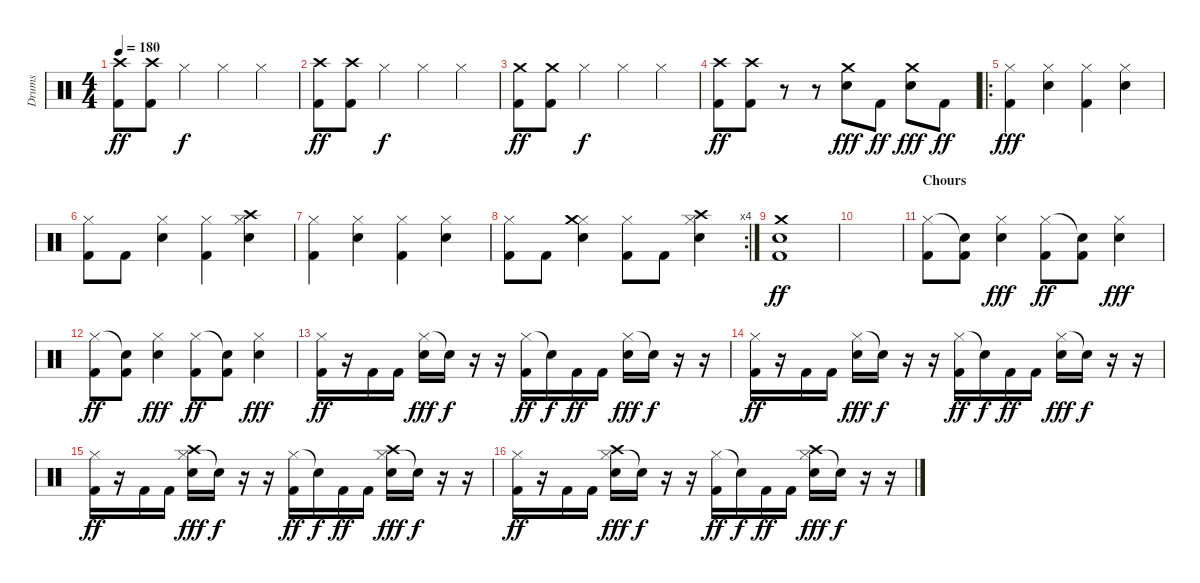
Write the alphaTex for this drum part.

\track ("Drums" "Drums") {instrument percussion}
\staff {score}
\articulation defaults
\ts (4 4)
\tempo 180
\clef neutral
\ks c
("Crash high (hit)" "Kick (hit) 2").8{dy ff} ("Crash high (hit)" "Kick (hit) 2").8 "Hi-Hat (closed)".4{dy f} "Hi-Hat (closed)".4 "Hi-Hat (closed)".4 |
("Crash high (hit)" "Kick (hit) 2").8{dy ff} ("Crash high (hit)" "Kick (hit) 2").8 "Hi-Hat (closed)".4{dy f} "Hi-Hat (closed)".4 "Hi-Hat (closed)".4 |
("Crash medium (hit)" "Kick (hit) 2").8{dy ff} ("Crash medium (hit)" "Kick (hit) 2").8 "Hi-Hat (closed)".4{dy f} "Hi-Hat (closed)".4 "Hi-Hat (closed)".4 |
("Crash high (hit)" "Kick (hit) 2").8{dy ff} ("Crash high (hit)" "Kick (hit) 2").8 r.8 r.8 ("Crash medium (hit)" "Snare (hit) 2").8{dy fff} "Kick (hit) 2".8{dy ff} ("Crash medium (hit)" "Snare (hit) 2").8{dy fff} "Kick (hit) 2".8{dy ff} |
\ro
("Hi-Hat (closed)" "Kick (hit) 2").4{dy fff} ("Hi-Hat (closed)" "Snare (hit) 2").4 ("Hi-Hat (closed)" "Kick (hit) 2").4 ("Hi-Hat (closed)" "Snare (hit) 2").4 |
("Hi-Hat (closed)" "Kick (hit) 2").8 "Kick (hit) 2".8 ("Hi-Hat (closed)" "Snare (hit) 2").4 ("Hi-Hat (closed)" "Kick (hit) 2").4 ("Hi-Hat (closed)" "Crash high (hit)" "Snare (hit) 2").4 |
("Hi-Hat (closed)" "Kick (hit) 2").4 ("Hi-Hat (closed)" "Snare (hit) 2").4 ("Hi-Hat (closed)" "Kick (hit) 2").4 ("Hi-Hat (closed)" "Snare (hit) 2").4 |
\rc 4
("Hi-Hat (closed)" "Kick (hit) 2").8 "Kick (hit) 2".8 ("Hi-Hat (closed)" "Crash medium (hit)" "Snare (hit) 2").4 ("Hi-Hat (closed)" "Kick (hit) 2").8 "Kick (hit) 2".8 ("Hi-Hat (closed)" "Crash high (hit)" "Snare (hit) 2").4 |
("Crash medium (hit)" "Snare (hit) 2" "Kick (hit) 2").1{dy ff} |
|
\section ("" "Chours")
("Hi-Hat (closed)" "Kick (hit) 2").8 ("Snare (hit)"{t} "Kick (hit) 2").8 ("Hi-Hat (closed)" "Snare (hit) 2").4{dy fff} ("Hi-Hat (closed)" "Kick (hit) 2").8{dy ff} ("Snare (hit)"{t} "Kick (hit) 2").8 ("Hi-Hat (closed)" "Snare (hit) 2").4{dy fff} |
("Hi-Hat (closed)" "Kick (hit) 2").8{dy ff} ("Snare (hit)"{t} "Kick (hit) 2").8 ("Hi-Hat (closed)" "Snare (hit) 2").4{dy fff} ("Hi-Hat (closed)" "Kick (hit) 2").8{dy ff} ("Snare (hit)"{t} "Kick (hit) 2").8 ("Hi-Hat (closed)" "Snare (hit) 2").4{dy fff} |
("Hi-Hat (closed)" "Kick (hit) 2").16{dy ff} r.16 "Kick (hit) 2".16 "Kick (hit) 2".16 ("Hi-Hat (closed)" "Snare (hit) 2").16{dy fff} "Snare (hit)"{t}.16{dy f} r.16 r.16 ("Hi-Hat (closed)" "Kick (hit) 2").16{dy ff} "Snare (hit)"{t}.16{dy f} "Kick (hit) 2".16{dy ff} "Kick (hit) 2".16 ("Hi-Hat (closed)" "Snare (hit) 2").16{dy fff} "Snare (hit)"{t}.16{dy f} r.16 r.16 |
("Hi-Hat (closed)" "Kick (hit) 2").16{dy ff} r.16 "Kick (hit) 2".16 "Kick (hit) 2".16 ("Hi-Hat (closed)" "Snare (hit) 2").16{dy fff} "Snare (hit)"{t}.16{dy f} r.16 r.16 ("Hi-Hat (closed)" "Kick (hit) 2").16{dy ff} "Snare (hit)"{t}.16{dy f} "Kick (hit) 2".16{dy ff} "Kick (hit) 2".16 ("Hi-Hat (closed)" "Snare (hit) 2").16{dy fff} "Snare (hit)"{t}.16{dy f} r.16 r.16 |
("Hi-Hat (closed)" "Kick (hit) 2").16{dy ff} r.16 "Kick (hit) 2".16 "Kick (hit) 2".16 ("Hi-Hat (closed)" "Crash high (hit)" "Snare (hit) 2").16{dy fff} "Snare (hit)"{t}.16{dy f} r.16 r.16 ("Hi-Hat (closed)" "Kick (hit) 2").16{dy ff} "Snare (hit)"{t}.16{dy f} "Kick (hit) 2".16{dy ff} "Kick (hit) 2".16 ("Hi-Hat (closed)" "Crash high (hit)" "Snare (hit) 2").16{dy fff} "Snare (hit)"{t}.16{dy f} r.16 r.16 |
("Hi-Hat (closed)" "Kick (hit) 2").16{dy ff} r.16 "Kick (hit) 2".16 "Kick (hit) 2".16 ("Hi-Hat (closed)" "Crash high (hit)" "Snare (hit) 2").16{dy fff} "Snare (hit)"{t}.16{dy f} r.16 r.16 ("Hi-Hat (closed)" "Kick (hit) 2").16{dy ff} "Snare (hit)"{t}.16{dy f} "Kick (hit) 2".16{dy ff} "Kick (hit) 2".16 ("Hi-Hat (closed)" "Crash high (hit)" "Snare (hit) 2").16{dy fff} "Snare (hit)"{t}.16{dy f} r.16 r.16
